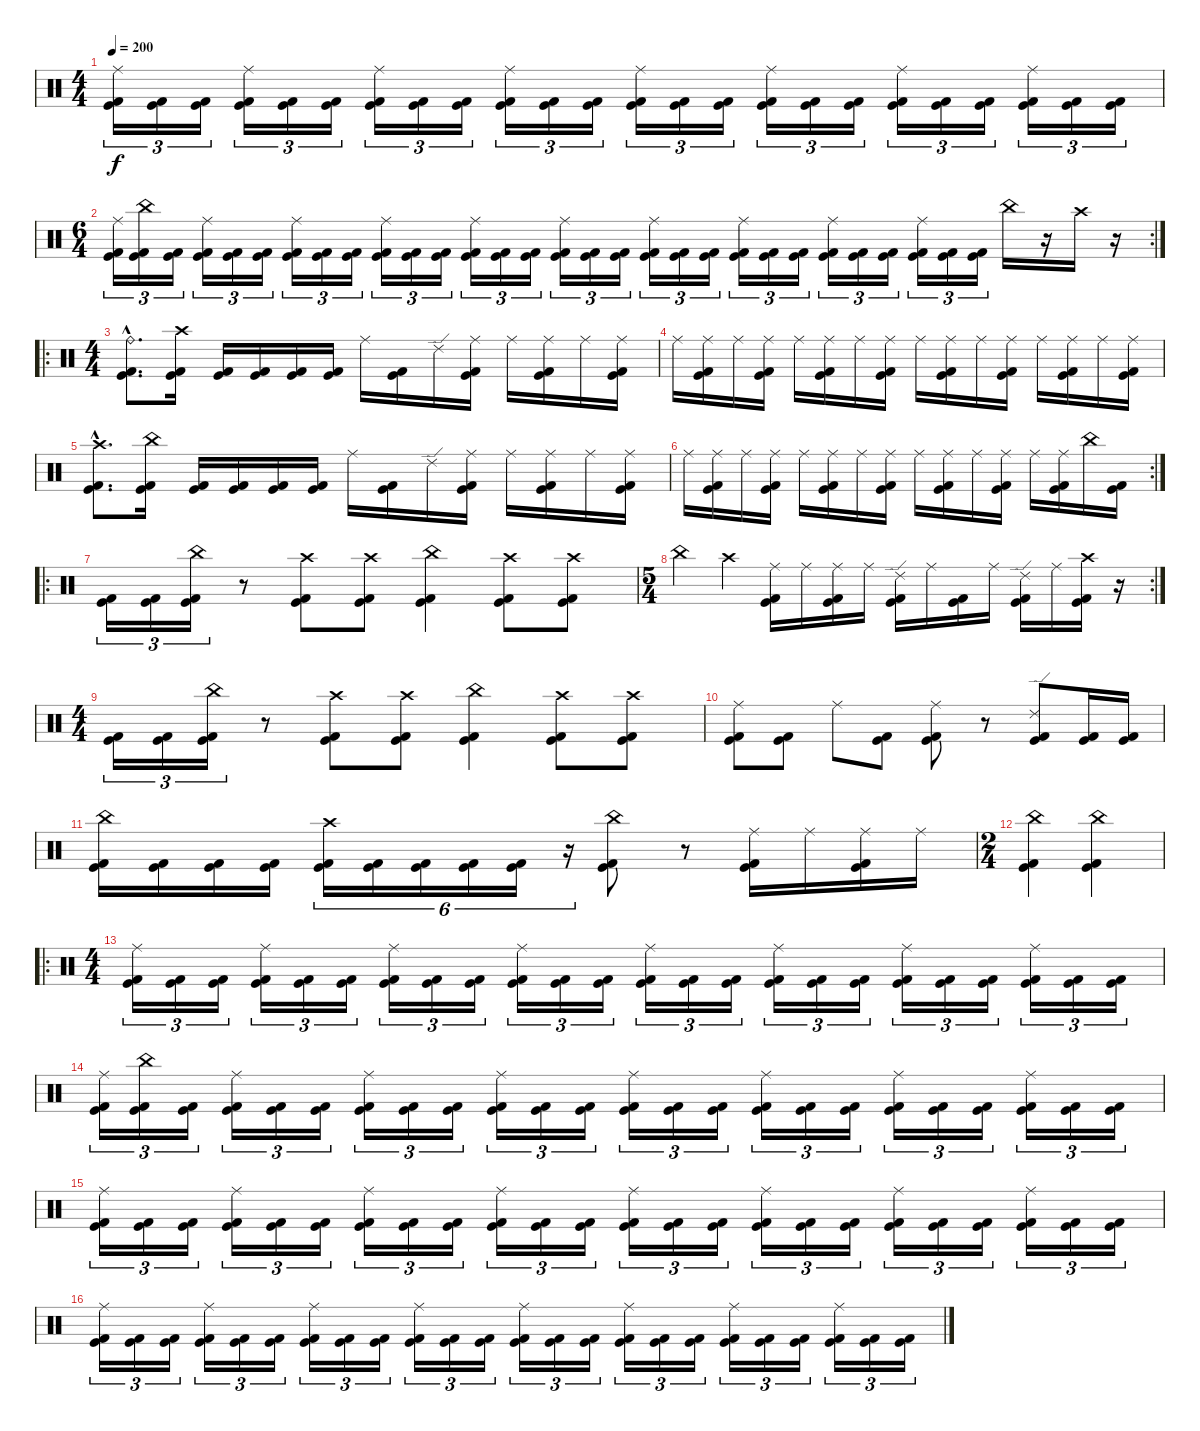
\track "" {instrument percussion}
\staff {score}
\articulation defaults
\ts (4 4)
\tempo 200
\clef neutral
\ks c
("Ride (middle)" "Kick (hit)" "Kick (hit) 2").16{tu (3 2) dy f} ("Kick (hit)" "Kick (hit) 2").16{tu (3 2)} ("Kick (hit)" "Kick (hit) 2").16{tu (3 2)} ("Ride (middle)" "Kick (hit)" "Kick (hit) 2").16{tu (3 2)} ("Kick (hit)" "Kick (hit) 2").16{tu (3 2)} ("Kick (hit)" "Kick (hit) 2").16{tu (3 2)} ("Ride (middle)" "Kick (hit)" "Kick (hit) 2").16{tu (3 2)} ("Kick (hit)" "Kick (hit) 2").16{tu (3 2)} ("Kick (hit)" "Kick (hit) 2").16{tu (3 2)} ("Ride (middle)" "Kick (hit)" "Kick (hit) 2").16{tu (3 2)} ("Kick (hit)" "Kick (hit) 2").16{tu (3 2)} ("Kick (hit)" "Kick (hit) 2").16{tu (3 2)} ("Ride (middle)" "Kick (hit)" "Kick (hit) 2").16{tu (3 2)} ("Kick (hit)" "Kick (hit) 2").16{tu (3 2)} ("Kick (hit)" "Kick (hit) 2").16{tu (3 2)} ("Ride (middle)" "Kick (hit)" "Kick (hit) 2").16{tu (3 2)} ("Kick (hit)" "Kick (hit) 2").16{tu (3 2)} ("Kick (hit)" "Kick (hit) 2").16{tu (3 2)} ("Ride (middle)" "Kick (hit)" "Kick (hit) 2").16{tu (3 2)} ("Kick (hit)" "Kick (hit) 2").16{tu (3 2)} ("Kick (hit)" "Kick (hit) 2").16{tu (3 2)} ("Ride (middle)" "Kick (hit)" "Kick (hit) 2").16{tu (3 2)} ("Kick (hit)" "Kick (hit) 2").16{tu (3 2)} ("Kick (hit)" "Kick (hit) 2").16{tu (3 2)} |
\rc 2
\ts (6 4)
("Ride (middle)" "Kick (hit)" "Kick (hit) 2").16{tu (3 2)} ("China (hit)" "Kick (hit)" "Kick (hit) 2").16{tu (3 2)} ("Kick (hit)" "Kick (hit) 2").16{tu (3 2)} ("Ride (middle)" "Kick (hit)" "Kick (hit) 2").16{tu (3 2)} ("Kick (hit)" "Kick (hit) 2").16{tu (3 2)} ("Kick (hit)" "Kick (hit) 2").16{tu (3 2)} ("Ride (middle)" "Kick (hit)" "Kick (hit) 2").16{tu (3 2)} ("Kick (hit)" "Kick (hit) 2").16{tu (3 2)} ("Kick (hit)" "Kick (hit) 2").16{tu (3 2)} ("Ride (middle)" "Kick (hit)" "Kick (hit) 2").16{tu (3 2)} ("Kick (hit)" "Kick (hit) 2").16{tu (3 2)} ("Kick (hit)" "Kick (hit) 2").16{tu (3 2)} ("Ride (middle)" "Kick (hit)" "Kick (hit) 2").16{tu (3 2)} ("Kick (hit)" "Kick (hit) 2").16{tu (3 2)} ("Kick (hit)" "Kick (hit) 2").16{tu (3 2)} ("Ride (middle)" "Kick (hit)" "Kick (hit) 2").16{tu (3 2)} ("Kick (hit)" "Kick (hit) 2").16{tu (3 2)} ("Kick (hit)" "Kick (hit) 2").16{tu (3 2)} ("Ride (middle)" "Kick (hit)" "Kick (hit) 2").16{tu (3 2)} ("Kick (hit)" "Kick (hit) 2").16{tu (3 2)} ("Kick (hit)" "Kick (hit) 2").16{tu (3 2)} ("Ride (middle)" "Kick (hit)" "Kick (hit) 2").16{tu (3 2)} ("Kick (hit)" "Kick (hit) 2").16{tu (3 2)} ("Kick (hit)" "Kick (hit) 2").16{tu (3 2)} ("Ride (middle)" "Kick (hit)" "Kick (hit) 2").16{tu (3 2)} ("Kick (hit)" "Kick (hit) 2").16{tu (3 2)} ("Kick (hit)" "Kick (hit) 2").16{tu (3 2)} ("Ride (middle)" "Kick (hit)" "Kick (hit) 2").16{tu (3 2)} ("Kick (hit)" "Kick (hit) 2").16{tu (3 2)} ("Kick (hit)" "Kick (hit) 2").16{tu (3 2)} "China (hit)".16 r.16 "Crash high (hit)".16 r.16 |
\ro
\ts (4 4)
("Ride (bell)"{hac} "Kick (hit)"{hac} "Kick (hit) 2"{hac}).8{d} ("Crash high (hit)" "Kick (hit)" "Kick (hit) 2").16 ("Kick (hit)" "Kick (hit) 2").16 ("Kick (hit)" "Kick (hit) 2").16 ("Kick (hit)" "Kick (hit) 2").16 ("Kick (hit)" "Kick (hit) 2").16 "Ride (middle)".16 ("Kick (hit)" "Kick (hit) 2").16 "Ride (edge) 2".16 ("Ride (middle)" "Kick (hit)" "Kick (hit) 2").16 "Ride (middle)".16 ("Ride (middle)" "Kick (hit)" "Kick (hit) 2").16 "Ride (middle)".16 ("Ride (middle)" "Kick (hit)" "Kick (hit) 2").16 |
"Ride (middle)".16 ("Ride (middle)" "Kick (hit)" "Kick (hit) 2").16 "Ride (middle)".16 ("Ride (middle)" "Kick (hit)" "Kick (hit) 2").16 "Ride (middle)".16 ("Ride (middle)" "Kick (hit)" "Kick (hit) 2").16 "Ride (middle)".16 ("Ride (middle)" "Kick (hit)" "Kick (hit) 2").16 "Ride (middle)".16 ("Ride (middle)" "Kick (hit)" "Kick (hit) 2").16 "Ride (middle)".16 ("Ride (middle)" "Kick (hit)" "Kick (hit) 2").16 "Ride (middle)".16 ("Ride (middle)" "Kick (hit)" "Kick (hit) 2").16 "Ride (middle)".16 ("Ride (middle)" "Kick (hit)" "Kick (hit) 2").16 |
("Crash high (hit)"{hac} "Kick (hit)"{hac} "Kick (hit) 2"{hac}).8{d} ("China (hit)" "Kick (hit)" "Kick (hit) 2").16 ("Kick (hit)" "Kick (hit) 2").16 ("Kick (hit)" "Kick (hit) 2").16 ("Kick (hit)" "Kick (hit) 2").16 ("Kick (hit)" "Kick (hit) 2").16 "Ride (middle)".16 ("Kick (hit)" "Kick (hit) 2").16 "Ride (edge) 2".16 ("Ride (middle)" "Kick (hit)" "Kick (hit) 2").16 "Ride (middle)".16 ("Ride (middle)" "Kick (hit)" "Kick (hit) 2").16 "Ride (middle)".16 ("Ride (middle)" "Kick (hit)" "Kick (hit) 2").16 |
\rc 2 "Ride (middle)".16
("Ride (middle)" "Kick (hit)" "Kick (hit) 2").16 "Ride (middle)".16 ("Ride (middle)" "Kick (hit)" "Kick (hit) 2").16 "Ride (middle)".16 ("Ride (middle)" "Kick (hit)" "Kick (hit) 2").16 "Ride (middle)".16 ("Ride (middle)" "Kick (hit)" "Kick (hit) 2").16 "Ride (middle)".16 ("Ride (middle)" "Kick (hit)" "Kick (hit) 2").16 "Ride (middle)".16 ("Ride (middle)" "Kick (hit)" "Kick (hit) 2").16 "Ride (middle)".16 ("Ride (middle)" "Kick (hit)" "Kick (hit) 2").16 "China (hit)".16 ("Kick (hit)" "Kick (hit) 2").16 |
\ro
("Kick (hit)" "Kick (hit) 2").16{tu (3 2)} ("Kick (hit)" "Kick (hit) 2").16{tu (3 2)} ("China (hit)" "Kick (hit)" "Kick (hit) 2").16{tu (3 2)} r.8 ("Crash high (hit)" "Kick (hit)" "Kick (hit) 2").8 ("Crash high (hit)" "Kick (hit)" "Kick (hit) 2").8 ("China (hit)" "Kick (hit)" "Kick (hit) 2").4 ("Crash high (hit)" "Kick (hit)" "Kick (hit) 2").8 ("Crash high (hit)" "Kick (hit)" "Kick (hit) 2").8 |
\rc 2
\ts (5 4)
"China (hit)".4 "Crash high (hit)".4 ("Ride (middle)" "Kick (hit)" "Kick (hit) 2").16 "Ride (middle)".16 ("Ride (middle)" "Kick (hit)" "Kick (hit) 2").16 "Ride (middle)".16 ("Ride (edge) 2" "Kick (hit)" "Kick (hit) 2").16 "Ride (middle)".16 ("Kick (hit)" "Kick (hit) 2").16 "Ride (middle)".16 ("Ride (edge) 2" "Kick (hit)" "Kick (hit) 2").16 "Ride (middle)".16 ("Crash high (hit)" "Kick (hit)" "Kick (hit) 2").16 r.16 |
\ts (4 4)
("Kick (hit)" "Kick (hit) 2").16{tu (3 2)} ("Kick (hit)" "Kick (hit) 2").16{tu (3 2)} ("China (hit)" "Kick (hit)" "Kick (hit) 2").16{tu (3 2)} r.8 ("Crash high (hit)" "Kick (hit)" "Kick (hit) 2").8 ("Crash high (hit)" "Kick (hit)" "Kick (hit) 2").8 ("China (hit)" "Kick (hit)" "Kick (hit) 2").4 ("Crash high (hit)" "Kick (hit)" "Kick (hit) 2").8 ("Crash high (hit)" "Kick (hit)" "Kick (hit) 2").8 |
("Ride (middle)" "Kick (hit)" "Kick (hit) 2").8 ("Kick (hit)" "Kick (hit) 2").8 "Ride (middle)".8 ("Kick (hit)" "Kick (hit) 2").8 ("Ride (middle)" "Kick (hit)" "Kick (hit) 2").8 r.8 ("Ride (edge) 2" "Kick (hit)" "Kick (hit) 2").8 ("Kick (hit)" "Kick (hit) 2").16 ("Kick (hit)" "Kick (hit) 2").16 |
("China (hit)" "Kick (hit)" "Kick (hit) 2").16 ("Kick (hit)" "Kick (hit) 2").16 ("Kick (hit)" "Kick (hit) 2").16 ("Kick (hit)" "Kick (hit) 2").16 ("Crash high (hit)" "Kick (hit)" "Kick (hit) 2").16{tu (6 4)} ("Kick (hit)" "Kick (hit) 2").16{tu (6 4)} ("Kick (hit)" "Kick (hit) 2").16{tu (6 4)} ("Kick (hit)" "Kick (hit) 2").16{tu (6 4)} ("Kick (hit)" "Kick (hit) 2").16{tu (6 4)} r.16{tu (6 4)} ("China (hit)" "Kick (hit)" "Kick (hit) 2").8 r.8 ("Ride (middle)" "Kick (hit)" "Kick (hit) 2").16 "Ride (middle)".16 ("Ride (middle)" "Kick (hit)" "Kick (hit) 2").16 "Ride (middle)".16 |
\ts (2 4)
("China (hit)" "Kick (hit)" "Kick (hit) 2").4 ("China (hit)" "Kick (hit)" "Kick (hit) 2").4 |
\ro
\ts (4 4)
("Ride (middle)" "Kick (hit)" "Kick (hit) 2").16{tu (3 2)} ("Kick (hit)" "Kick (hit) 2").16{tu (3 2)} ("Kick (hit)" "Kick (hit) 2").16{tu (3 2)} ("Ride (middle)" "Kick (hit)" "Kick (hit) 2").16{tu (3 2)} ("Kick (hit)" "Kick (hit) 2").16{tu (3 2)} ("Kick (hit)" "Kick (hit) 2").16{tu (3 2)} ("Ride (middle)" "Kick (hit)" "Kick (hit) 2").16{tu (3 2)} ("Kick (hit)" "Kick (hit) 2").16{tu (3 2)} ("Kick (hit)" "Kick (hit) 2").16{tu (3 2)} ("Ride (middle)" "Kick (hit)" "Kick (hit) 2").16{tu (3 2)} ("Kick (hit)" "Kick (hit) 2").16{tu (3 2)} ("Kick (hit)" "Kick (hit) 2").16{tu (3 2)} ("Ride (middle)" "Kick (hit)" "Kick (hit) 2").16{tu (3 2)} ("Kick (hit)" "Kick (hit) 2").16{tu (3 2)} ("Kick (hit)" "Kick (hit) 2").16{tu (3 2)} ("Ride (middle)" "Kick (hit)" "Kick (hit) 2").16{tu (3 2)} ("Kick (hit)" "Kick (hit) 2").16{tu (3 2)} ("Kick (hit)" "Kick (hit) 2").16{tu (3 2)} ("Ride (middle)" "Kick (hit)" "Kick (hit) 2").16{tu (3 2)} ("Kick (hit)" "Kick (hit) 2").16{tu (3 2)} ("Kick (hit)" "Kick (hit) 2").16{tu (3 2)} ("Ride (middle)" "Kick (hit)" "Kick (hit) 2").16{tu (3 2)} ("Kick (hit)" "Kick (hit) 2").16{tu (3 2)} ("Kick (hit)" "Kick (hit) 2").16{tu (3 2)} |
("Ride (middle)" "Kick (hit)" "Kick (hit) 2").16{tu (3 2)} ("China (hit)" "Kick (hit)" "Kick (hit) 2").16{tu (3 2)} ("Kick (hit)" "Kick (hit) 2").16{tu (3 2)} ("Ride (middle)" "Kick (hit)" "Kick (hit) 2").16{tu (3 2)} ("Kick (hit)" "Kick (hit) 2").16{tu (3 2)} ("Kick (hit)" "Kick (hit) 2").16{tu (3 2)} ("Ride (middle)" "Kick (hit)" "Kick (hit) 2").16{tu (3 2)} ("Kick (hit)" "Kick (hit) 2").16{tu (3 2)} ("Kick (hit)" "Kick (hit) 2").16{tu (3 2)} ("Ride (middle)" "Kick (hit)" "Kick (hit) 2").16{tu (3 2)} ("Kick (hit)" "Kick (hit) 2").16{tu (3 2)} ("Kick (hit)" "Kick (hit) 2").16{tu (3 2)} ("Ride (middle)" "Kick (hit)" "Kick (hit) 2").16{tu (3 2)} ("Kick (hit)" "Kick (hit) 2").16{tu (3 2)} ("Kick (hit)" "Kick (hit) 2").16{tu (3 2)} ("Ride (middle)" "Kick (hit)" "Kick (hit) 2").16{tu (3 2)} ("Kick (hit)" "Kick (hit) 2").16{tu (3 2)} ("Kick (hit)" "Kick (hit) 2").16{tu (3 2)} ("Ride (middle)" "Kick (hit)" "Kick (hit) 2").16{tu (3 2)} ("Kick (hit)" "Kick (hit) 2").16{tu (3 2)} ("Kick (hit)" "Kick (hit) 2").16{tu (3 2)} ("Ride (middle)" "Kick (hit)" "Kick (hit) 2").16{tu (3 2)} ("Kick (hit)" "Kick (hit) 2").16{tu (3 2)} ("Kick (hit)" "Kick (hit) 2").16{tu (3 2)} |
("Ride (middle)" "Kick (hit)" "Kick (hit) 2").16{tu (3 2)} ("Kick (hit)" "Kick (hit) 2").16{tu (3 2)} ("Kick (hit)" "Kick (hit) 2").16{tu (3 2)} ("Ride (middle)" "Kick (hit)" "Kick (hit) 2").16{tu (3 2)} ("Kick (hit)" "Kick (hit) 2").16{tu (3 2)} ("Kick (hit)" "Kick (hit) 2").16{tu (3 2)} ("Ride (middle)" "Kick (hit)" "Kick (hit) 2").16{tu (3 2)} ("Kick (hit)" "Kick (hit) 2").16{tu (3 2)} ("Kick (hit)" "Kick (hit) 2").16{tu (3 2)} ("Ride (middle)" "Kick (hit)" "Kick (hit) 2").16{tu (3 2)} ("Kick (hit)" "Kick (hit) 2").16{tu (3 2)} ("Kick (hit)" "Kick (hit) 2").16{tu (3 2)} ("Ride (middle)" "Kick (hit)" "Kick (hit) 2").16{tu (3 2)} ("Kick (hit)" "Kick (hit) 2").16{tu (3 2)} ("Kick (hit)" "Kick (hit) 2").16{tu (3 2)} ("Ride (middle)" "Kick (hit)" "Kick (hit) 2").16{tu (3 2)} ("Kick (hit)" "Kick (hit) 2").16{tu (3 2)} ("Kick (hit)" "Kick (hit) 2").16{tu (3 2)} ("Ride (middle)" "Kick (hit)" "Kick (hit) 2").16{tu (3 2)} ("Kick (hit)" "Kick (hit) 2").16{tu (3 2)} ("Kick (hit)" "Kick (hit) 2").16{tu (3 2)} ("Ride (middle)" "Kick (hit)" "Kick (hit) 2").16{tu (3 2)} ("Kick (hit)" "Kick (hit) 2").16{tu (3 2)} ("Kick (hit)" "Kick (hit) 2").16{tu (3 2)} |
("Ride (middle)" "Kick (hit)" "Kick (hit) 2").16{tu (3 2)} ("Kick (hit)" "Kick (hit) 2").16{tu (3 2)} ("Kick (hit)" "Kick (hit) 2").16{tu (3 2)} ("Ride (middle)" "Kick (hit)" "Kick (hit) 2").16{tu (3 2)} ("Kick (hit)" "Kick (hit) 2").16{tu (3 2)} ("Kick (hit)" "Kick (hit) 2").16{tu (3 2)} ("Ride (middle)" "Kick (hit)" "Kick (hit) 2").16{tu (3 2)} ("Kick (hit)" "Kick (hit) 2").16{tu (3 2)} ("Kick (hit)" "Kick (hit) 2").16{tu (3 2)} ("Ride (middle)" "Kick (hit)" "Kick (hit) 2").16{tu (3 2)} ("Kick (hit)" "Kick (hit) 2").16{tu (3 2)} ("Kick (hit)" "Kick (hit) 2").16{tu (3 2)} ("Ride (middle)" "Kick (hit)" "Kick (hit) 2").16{tu (3 2)} ("Kick (hit)" "Kick (hit) 2").16{tu (3 2)} ("Kick (hit)" "Kick (hit) 2").16{tu (3 2)} ("Ride (middle)" "Kick (hit)" "Kick (hit) 2").16{tu (3 2)} ("Kick (hit)" "Kick (hit) 2").16{tu (3 2)} ("Kick (hit)" "Kick (hit) 2").16{tu (3 2)} ("Ride (middle)" "Kick (hit)" "Kick (hit) 2").16{tu (3 2)} ("Kick (hit)" "Kick (hit) 2").16{tu (3 2)} ("Kick (hit)" "Kick (hit) 2").16{tu (3 2)} ("Ride (middle)" "Kick (hit)" "Kick (hit) 2").16{tu (3 2)} ("Kick (hit)" "Kick (hit) 2").16{tu (3 2)} ("Kick (hit)" "Kick (hit) 2").16{tu (3 2)}
